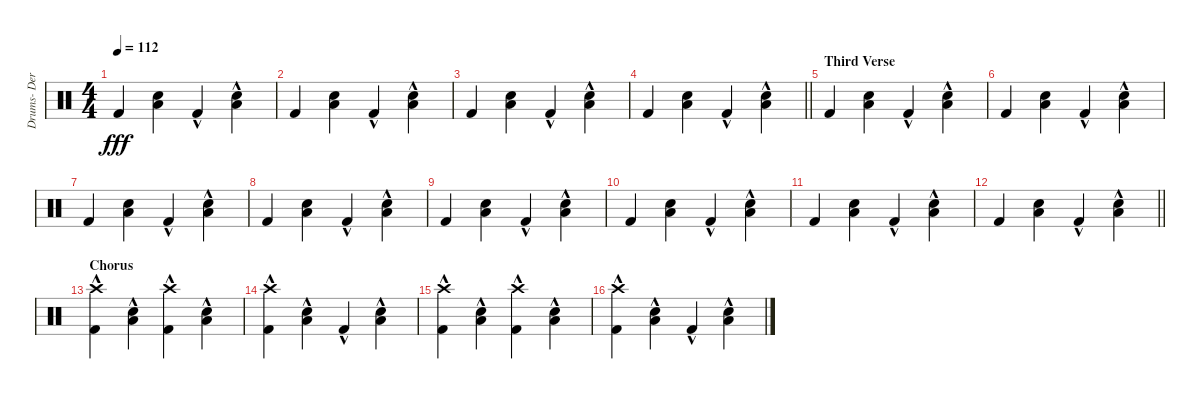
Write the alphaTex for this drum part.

\track ("Drums- Derek Grant" "Drums- Der") {instrument percussion}
\staff {score}
\articulation defaults
\ts (4 4)
\tempo 112
\clef neutral
\ks c "Kick (hit) 2".4{dy fff}
("Low Tom (hit)" "Snare (hit) 2").4 "Kick (hit) 2"{hac}.4 ("Low Tom (hit)"{hac} "Snare (hit) 2"{hac}).4 |
"Kick (hit) 2".4 ("Low Tom (hit)" "Snare (hit) 2").4 "Kick (hit) 2"{hac}.4 ("Low Tom (hit)"{hac} "Snare (hit) 2").4 |
"Kick (hit) 2".4 ("Low Tom (hit)" "Snare (hit) 2").4 "Kick (hit) 2"{hac}.4 ("Low Tom (hit)"{hac} "Snare (hit) 2"{hac}).4 |
\barLineRight lightlight "Kick (hit) 2".4
("Low Tom (hit)" "Snare (hit) 2").4 "Kick (hit) 2"{hac}.4 ("Low Tom (hit)"{hac} "Snare (hit) 2").4 |
\section ("" "Third Verse")
"Kick (hit) 2".4 ("Low Tom (hit)" "Snare (hit) 2").4 "Kick (hit) 2"{hac}.4 ("Low Tom (hit)"{hac} "Snare (hit) 2").4 |
"Kick (hit) 2".4 ("Low Tom (hit)" "Snare (hit) 2").4 "Kick (hit) 2"{hac}.4 ("Low Tom (hit)"{hac} "Snare (hit) 2"{hac}).4 |
"Kick (hit) 2".4 ("Low Tom (hit)" "Snare (hit) 2").4 "Kick (hit) 2"{hac}.4 ("Low Tom (hit)"{hac} "Snare (hit) 2").4 |
"Kick (hit) 2".4 ("Low Tom (hit)" "Snare (hit) 2").4 "Kick (hit) 2"{hac}.4 ("Low Tom (hit)"{hac} "Snare (hit) 2"{hac}).4 |
"Kick (hit) 2".4 ("Low Tom (hit)" "Snare (hit) 2").4 "Kick (hit) 2"{hac}.4 ("Low Tom (hit)"{hac} "Snare (hit) 2"{hac}).4 |
"Kick (hit) 2".4 ("Low Tom (hit)" "Snare (hit) 2").4 "Kick (hit) 2"{hac}.4 ("Low Tom (hit)"{hac} "Snare (hit) 2").4 |
"Kick (hit) 2".4 ("Low Tom (hit)" "Snare (hit) 2").4 "Kick (hit) 2"{hac}.4 ("Low Tom (hit)"{hac} "Snare (hit) 2"{hac}).4 |
\barLineRight lightlight "Kick (hit) 2".4
("Low Tom (hit)" "Snare (hit) 2").4 "Kick (hit) 2"{hac}.4 ("Low Tom (hit)"{hac} "Snare (hit) 2").4 |
\section ("" "Chorus")
("Crash high (hit)" "Kick (hit) 2"{hac}).4 ("Low Tom (hit)"{hac} "Snare (hit) 2"{hac}).4 ("Crash high (hit)" "Kick (hit) 2"{hac}).4 ("Low Tom (hit)"{hac} "Snare (hit) 2"{hac}).4 |
("Crash high (hit)" "Kick (hit) 2"{hac}).4 ("Low Tom (hit)"{hac} "Snare (hit) 2"{hac}).4 "Kick (hit) 2"{hac}.4 ("Low Tom (hit)"{hac} "Snare (hit) 2"{hac}).4 |
("Crash high (hit)" "Kick (hit) 2"{hac}).4 ("Low Tom (hit)"{hac} "Snare (hit) 2"{hac}).4 ("Crash high (hit)" "Kick (hit) 2"{hac}).4 ("Low Tom (hit)"{hac} "Snare (hit) 2"{hac}).4 |
("Crash high (hit)" "Kick (hit) 2"{hac}).4 ("Low Tom (hit)"{hac} "Snare (hit) 2"{hac}).4 "Kick (hit) 2"{hac}.4 ("Low Tom (hit)"{hac} "Snare (hit) 2"{hac}).4
